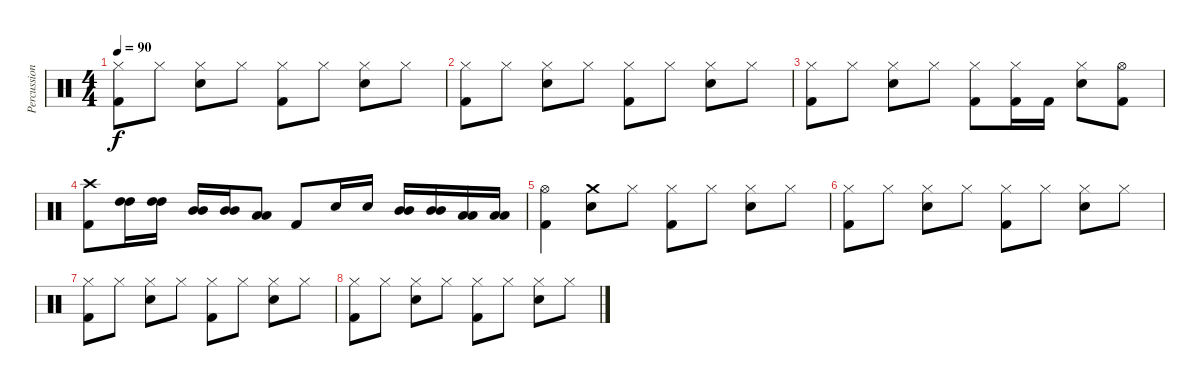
\track ("Percussion" "Percussion") {instrument percussion}
\staff {score}
\articulation defaults
\ts (4 4)
\tempo 90
\clef neutral
\ks c
("Kick (hit) 2" "Hi-Hat (closed)").8{dy f} "Hi-Hat (closed)".8 ("Snare (hit) 2" "Hi-Hat (closed)").8 "Hi-Hat (closed)".8 ("Kick (hit) 2" "Hi-Hat (closed)").8 "Hi-Hat (closed)".8 ("Snare (hit) 2" "Hi-Hat (closed)").8 "Hi-Hat (closed)".8 |
("Kick (hit) 2" "Hi-Hat (closed)").8 "Hi-Hat (closed)".8 ("Snare (hit) 2" "Hi-Hat (closed)").8 "Hi-Hat (closed)".8 ("Kick (hit) 2" "Hi-Hat (closed)").8 "Hi-Hat (closed)".8 ("Snare (hit) 2" "Hi-Hat (closed)").8 "Hi-Hat (closed)".8 |
("Kick (hit) 2" "Hi-Hat (closed)").8 "Hi-Hat (closed)".8 ("Snare (hit) 2" "Hi-Hat (closed)").8 "Hi-Hat (closed)".8 ("Kick (hit) 2" "Hi-Hat (closed)").8 ("Kick (hit) 2" "Hi-Hat (closed)").16 "Kick (hit) 2".16 ("Snare (hit) 2" "Hi-Hat (closed)").8 ("Kick (hit) 2" "Hi-Hat (open)").8 |
("Kick (hit) 2" "Crash high (hit)").8 ("High Tom (hit)" "High Tom (hit)").16 ("High Tom (hit)" "High Tom (hit)").16 ("Mid Tom (hit)" "Mid Tom (hit)").16 ("Mid Tom (hit)" "Mid Tom (hit)").16 ("Low Tom (hit)" "Low Tom (hit)").8 "Kick (hit) 2".8 "Snare (hit) 2".16 "Snare (hit) 2".16 ("Mid Tom (hit)" "Mid Tom (hit)").16 ("Mid Tom (hit)" "Mid Tom (hit)").16 ("Low Tom (hit)" "Low Tom (hit)").16 ("Low Tom (hit)" "Low Tom (hit)").16 |
("Kick (hit) 2" "Hi-Hat (open)").4 ("Snare (hit) 2" "Crash medium (hit)").8 "Hi-Hat (closed)".8 ("Kick (hit) 2" "Hi-Hat (closed)").8 "Hi-Hat (closed)".8 ("Snare (hit) 2" "Hi-Hat (closed)").8 "Hi-Hat (closed)".8 |
("Kick (hit) 2" "Hi-Hat (closed)").8 "Hi-Hat (closed)".8 ("Snare (hit) 2" "Hi-Hat (closed)").8 "Hi-Hat (closed)".8 ("Kick (hit) 2" "Hi-Hat (closed)").8 "Hi-Hat (closed)".8 ("Snare (hit) 2" "Hi-Hat (closed)").8 "Hi-Hat (closed)".8 |
("Kick (hit) 2" "Hi-Hat (closed)").8 "Hi-Hat (closed)".8 ("Snare (hit) 2" "Hi-Hat (closed)").8 "Hi-Hat (closed)".8 ("Kick (hit) 2" "Hi-Hat (closed)").8 "Hi-Hat (closed)".8 ("Snare (hit) 2" "Hi-Hat (closed)").8 "Hi-Hat (closed)".8 |
("Kick (hit) 2" "Hi-Hat (closed)").8 "Hi-Hat (closed)".8 ("Snare (hit) 2" "Hi-Hat (closed)").8 "Hi-Hat (closed)".8 ("Kick (hit) 2" "Hi-Hat (closed)").8 "Hi-Hat (closed)".8 ("Snare (hit) 2" "Hi-Hat (closed)").8 "Hi-Hat (closed)".8
